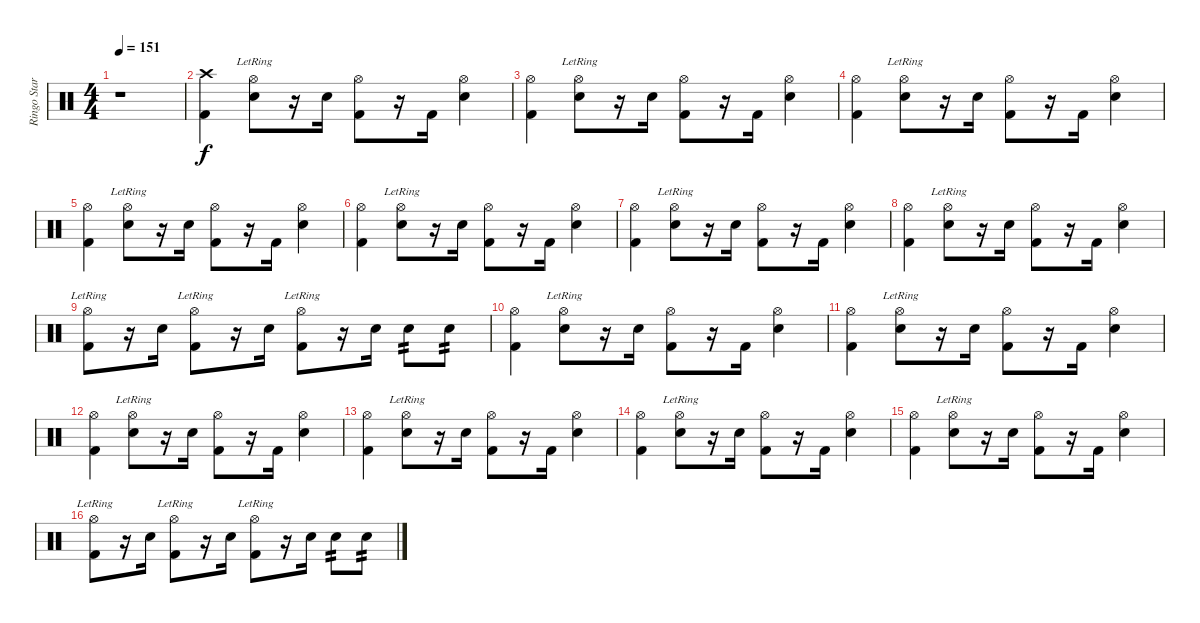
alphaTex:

\track ("Ringo Star" "Ringo Star") {instrument percussion}
\staff {score}
\articulation defaults
\ts (4 4)
\tempo 151
\clef neutral
\ks c
r.1{dy f} |
("Crash high (hit)" "Kick (hit) 2").4 ("Hi-Hat (open)"{lr} "Snare (hit) 2").8 r.16 "Snare (hit) 2".16 ("Hi-Hat (open)" "Kick (hit) 2").8 r.16 "Kick (hit) 2".16 ("Hi-Hat (open)" "Snare (hit) 2").4 |
("Hi-Hat (open)" "Kick (hit) 2").4 ("Hi-Hat (open)"{lr} "Snare (hit) 2").8 r.16 "Snare (hit) 2".16 ("Hi-Hat (open)" "Kick (hit) 2").8 r.16 "Kick (hit) 2".16 ("Hi-Hat (open)" "Snare (hit) 2").4 |
("Hi-Hat (open)" "Kick (hit) 2").4 ("Hi-Hat (open)"{lr} "Electric Snare (hit)").8 r.16 "Electric Snare (hit)".16 ("Hi-Hat (open)" "Kick (hit) 2").8 r.16 "Kick (hit) 2".16 ("Hi-Hat (open)" "Electric Snare (hit)").4 |
("Hi-Hat (open)" "Kick (hit) 2").4 ("Hi-Hat (open)"{lr} "Snare (hit) 2").8 r.16 "Snare (hit) 2".16 ("Hi-Hat (open)" "Kick (hit) 2").8 r.16 "Kick (hit) 2".16 ("Hi-Hat (open)" "Snare (hit) 2").4 |
("Hi-Hat (open)" "Kick (hit) 2").4 ("Hi-Hat (open)"{lr} "Snare (hit) 2").8 r.16 "Snare (hit) 2".16 ("Hi-Hat (open)" "Kick (hit) 2").8 r.16 "Kick (hit) 2".16 ("Hi-Hat (open)" "Snare (hit) 2").4 |
("Hi-Hat (open)" "Kick (hit) 2").4 ("Hi-Hat (open)"{lr} "Snare (hit) 2").8 r.16 "Snare (hit) 2".16 ("Hi-Hat (open)" "Kick (hit) 2").8 r.16 "Kick (hit) 2".16 ("Hi-Hat (open)" "Snare (hit) 2").4 |
("Hi-Hat (open)" "Kick (hit) 2").4 ("Hi-Hat (open)"{lr} "Snare (hit) 2").8 r.16 "Snare (hit) 2".16 ("Hi-Hat (open)" "Kick (hit) 2").8 r.16 "Kick (hit) 2".16 ("Hi-Hat (open)" "Snare (hit) 2").4 |
("Hi-Hat (open)"{lr} "Kick (hit) 2").8 r.16 "Snare (hit) 2".16 ("Hi-Hat (open)"{lr} "Kick (hit) 2").8 r.16 "Snare (hit) 2".16 ("Hi-Hat (open)"{lr} "Kick (hit) 2").8 r.16 "Snare (hit) 2".16 "Snare (hit) 2".8{tp 2} "Snare (hit) 2".8{tp 2} |
("Hi-Hat (open)" "Kick (hit) 2").4 ("Hi-Hat (open)"{lr} "Snare (hit) 2").8 r.16 "Snare (hit) 2".16 ("Hi-Hat (open)" "Kick (hit) 2").8 r.16 "Kick (hit) 2".16 ("Hi-Hat (open)" "Snare (hit) 2").4 |
("Hi-Hat (open)" "Kick (hit) 2").4 ("Hi-Hat (open)"{lr} "Snare (hit) 2").8 r.16 "Snare (hit) 2".16 ("Hi-Hat (open)" "Kick (hit) 2").8 r.16 "Kick (hit) 2".16 ("Hi-Hat (open)" "Snare (hit) 2").4 |
("Hi-Hat (open)" "Kick (hit) 2").4 ("Hi-Hat (open)"{lr} "Snare (hit) 2").8 r.16 "Snare (hit) 2".16 ("Hi-Hat (open)" "Kick (hit) 2").8 r.16 "Kick (hit) 2".16 ("Hi-Hat (open)" "Snare (hit) 2").4 |
("Hi-Hat (open)" "Kick (hit) 2").4 ("Hi-Hat (open)"{lr} "Snare (hit) 2").8 r.16 "Snare (hit) 2".16 ("Hi-Hat (open)" "Kick (hit) 2").8 r.16 "Kick (hit) 2".16 ("Hi-Hat (open)" "Snare (hit) 2").4 |
("Hi-Hat (open)" "Kick (hit) 2").4 ("Hi-Hat (open)"{lr} "Snare (hit) 2").8 r.16 "Snare (hit) 2".16 ("Hi-Hat (open)" "Kick (hit) 2").8 r.16 "Kick (hit) 2".16 ("Hi-Hat (open)" "Snare (hit) 2").4 |
("Hi-Hat (open)" "Kick (hit) 2").4 ("Hi-Hat (open)"{lr} "Snare (hit) 2").8 r.16 "Snare (hit) 2".16 ("Hi-Hat (open)" "Kick (hit) 2").8 r.16 "Kick (hit) 2".16 ("Hi-Hat (open)" "Snare (hit) 2").4 |
("Hi-Hat (open)"{lr} "Kick (hit) 2").8 r.16 "Snare (hit) 2".16 ("Hi-Hat (open)"{lr} "Kick (hit) 2").8 r.16 "Snare (hit) 2".16 ("Hi-Hat (open)"{lr} "Kick (hit) 2").8 r.16 "Snare (hit) 2".16 "Snare (hit) 2".8{tp 2} "Snare (hit) 2".8{tp 2}
